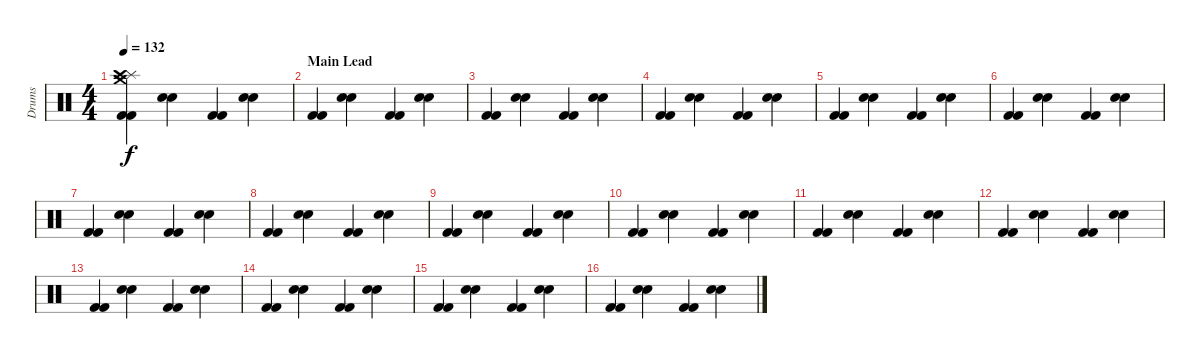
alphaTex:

\track ("Drums" "Drums") {instrument percussion}
\staff {score}
\articulation defaults
\ts (4 4)
\tempo 132
\clef neutral
\ks c
("Kick (hit) 2" "Kick (hit) 2" "Splash (hit)" "Crash medium (hit)" "Crash high (hit)").4{dy f} ("Snare (hit) 2" "Snare (hit) 2").4 ("Kick (hit) 2" "Kick (hit) 2").4 ("Snare (hit) 2" "Snare (hit) 2").4 |
\section ("" "Main Lead")
("Kick (hit) 2" "Kick (hit) 2").4 ("Snare (hit) 2" "Snare (hit) 2").4 ("Kick (hit) 2" "Kick (hit) 2").4 ("Snare (hit) 2" "Snare (hit) 2").4 |
("Kick (hit) 2" "Kick (hit) 2").4 ("Snare (hit) 2" "Snare (hit) 2").4 ("Kick (hit) 2" "Kick (hit) 2").4 ("Snare (hit) 2" "Snare (hit) 2").4 |
("Kick (hit) 2" "Kick (hit) 2").4 ("Snare (hit) 2" "Snare (hit) 2").4 ("Kick (hit) 2" "Kick (hit) 2").4 ("Snare (hit) 2" "Snare (hit) 2").4 |
("Kick (hit) 2" "Kick (hit) 2").4 ("Snare (hit) 2" "Snare (hit) 2").4 ("Kick (hit) 2" "Kick (hit) 2").4 ("Snare (hit) 2" "Snare (hit) 2").4 |
("Kick (hit) 2" "Kick (hit) 2").4 ("Snare (hit) 2" "Snare (hit) 2").4 ("Kick (hit) 2" "Kick (hit) 2").4 ("Snare (hit) 2" "Snare (hit) 2").4 |
("Kick (hit) 2" "Kick (hit) 2").4 ("Snare (hit) 2" "Snare (hit) 2").4 ("Kick (hit) 2" "Kick (hit) 2").4 ("Snare (hit) 2" "Snare (hit) 2").4 |
("Kick (hit) 2" "Kick (hit) 2").4 ("Snare (hit) 2" "Snare (hit) 2").4 ("Kick (hit) 2" "Kick (hit) 2").4 ("Snare (hit) 2" "Snare (hit) 2").4 |
("Kick (hit) 2" "Kick (hit) 2").4 ("Snare (hit) 2" "Snare (hit) 2").4 ("Kick (hit) 2" "Kick (hit) 2").4 ("Snare (hit) 2" "Snare (hit) 2").4 |
("Kick (hit) 2" "Kick (hit) 2").4 ("Snare (hit) 2" "Snare (hit) 2").4 ("Kick (hit) 2" "Kick (hit) 2").4 ("Snare (hit) 2" "Snare (hit) 2").4 |
("Kick (hit) 2" "Kick (hit) 2").4 ("Snare (hit) 2" "Snare (hit) 2").4 ("Kick (hit) 2" "Kick (hit) 2").4 ("Snare (hit) 2" "Snare (hit) 2").4 |
("Kick (hit) 2" "Kick (hit) 2").4 ("Snare (hit) 2" "Snare (hit) 2").4 ("Kick (hit) 2" "Kick (hit) 2").4 ("Snare (hit) 2" "Snare (hit) 2").4 |
("Kick (hit) 2" "Kick (hit) 2").4 ("Snare (hit) 2" "Snare (hit) 2").4 ("Kick (hit) 2" "Kick (hit) 2").4 ("Snare (hit) 2" "Snare (hit) 2").4 |
("Kick (hit) 2" "Kick (hit) 2").4 ("Snare (hit) 2" "Snare (hit) 2").4 ("Kick (hit) 2" "Kick (hit) 2").4 ("Snare (hit) 2" "Snare (hit) 2").4 |
("Kick (hit) 2" "Kick (hit) 2").4 ("Snare (hit) 2" "Snare (hit) 2").4 ("Kick (hit) 2" "Kick (hit) 2").4 ("Snare (hit) 2" "Snare (hit) 2").4 |
("Kick (hit) 2" "Kick (hit) 2").4 ("Snare (hit) 2" "Snare (hit) 2").4 ("Kick (hit) 2" "Kick (hit) 2").4 ("Snare (hit) 2" "Snare (hit) 2").4
